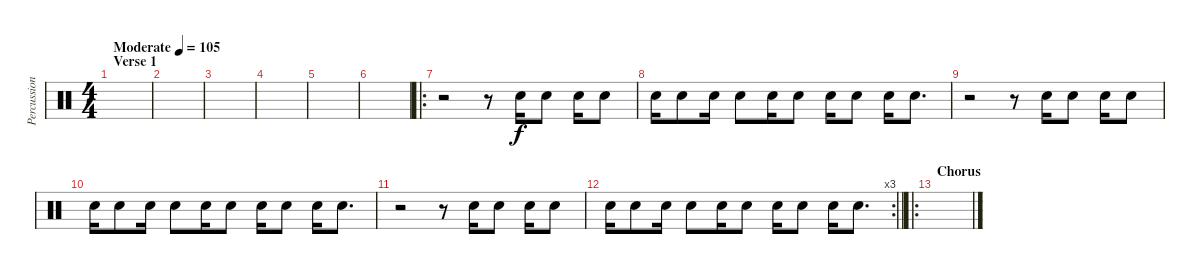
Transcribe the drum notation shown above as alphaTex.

\track ("Percussion FX" "Percussion") {instrument percussion}
\staff {score}
\articulation defaults
\ts (4 4)
\section ("" "Verse 1")
\tempo (105 "Moderate")
\clef neutral
\ks c
|
|
|
|
|
|
\ro
r.2{volume 3} r.8{volume 0} "Electric Snare (hit)".16 "Electric Snare (hit)".8 "Electric Snare (hit)".16 "Electric Snare (hit)".8 |
"Electric Snare (hit)".16 "Electric Snare (hit)".8 "Electric Snare (hit)".16 "Electric Snare (hit)".8 "Electric Snare (hit)".16 "Electric Snare (hit)".8 "Electric Snare (hit)".16 "Electric Snare (hit)".8 "Electric Snare (hit)".16 "Electric Snare (hit)".8{d} |
r.2{volume 3} r.8{volume 0} "Electric Snare (hit)".16 "Electric Snare (hit)".8 "Electric Snare (hit)".16 "Electric Snare (hit)".8 |
"Electric Snare (hit)".16 "Electric Snare (hit)".8 "Electric Snare (hit)".16 "Electric Snare (hit)".8 "Electric Snare (hit)".16 "Electric Snare (hit)".8 "Electric Snare (hit)".16 "Electric Snare (hit)".8 "Electric Snare (hit)".16 "Electric Snare (hit)".8{d} |
r.2{volume 3} r.8{volume 0} "Electric Snare (hit)".16 "Electric Snare (hit)".8 "Electric Snare (hit)".16 "Electric Snare (hit)".8 |
\rc 3
\barLineRight lightlight "Electric Snare (hit)".16 "Electric Snare (hit)".8 "Electric Snare (hit)".16 "Electric Snare (hit)".8 "Electric Snare (hit)".16 "Electric Snare (hit)".8 "Electric Snare (hit)".16 "Electric Snare (hit)".8 "Electric Snare (hit)".16 "Electric Snare (hit)".8{d}
|
\ro
\section ("" "Chorus")
